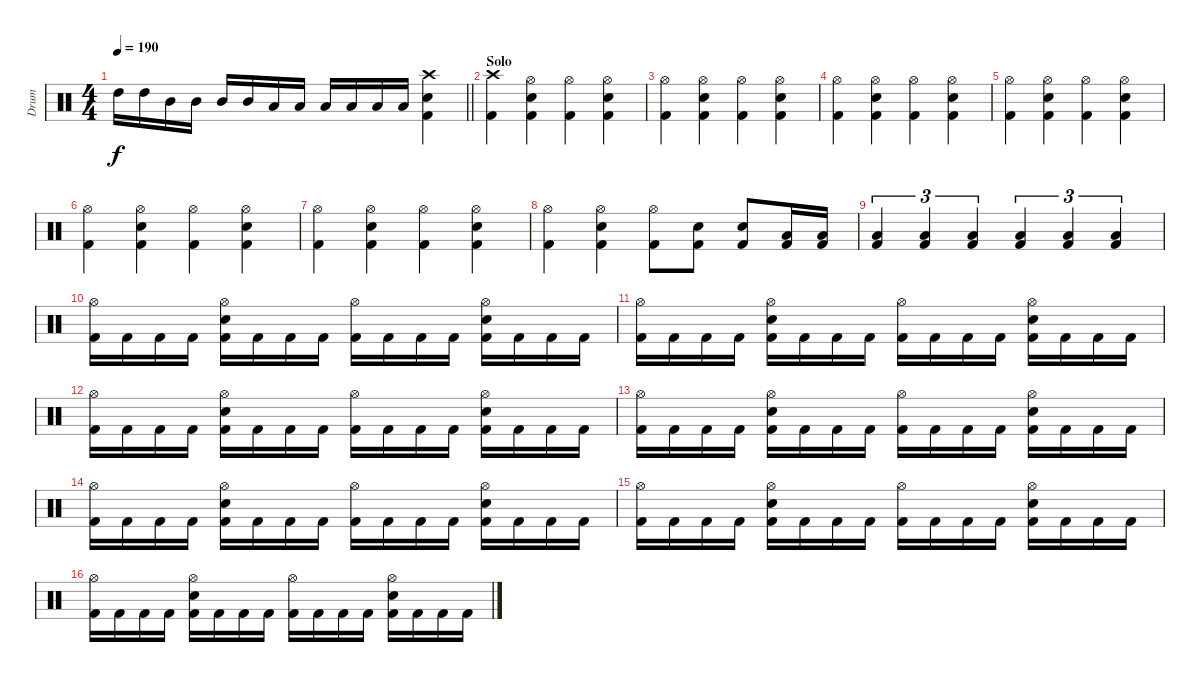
\track ("Drum" "Drum") {instrument percussion}
\staff {score}
\articulation defaults
\ts (4 4)
\tempo 190
\clef neutral
\barLineRight lightlight
\ks c "High Tom (hit)".16{dy f} "High Tom (hit)".16 "Mid Tom (hit)".16 "Mid Tom (hit)".16 "Mid Tom (hit)".16 "Mid Tom (hit)".16 "Low Tom (hit)".16 "Low Tom (hit)".16 "Low Tom (hit)".16 "Low Tom (hit)".16 "Low Floor Tom (hit)".16 "Low Floor Tom (hit)".16
("Crash high (hit)" "Snare (hit) 2" "Kick (hit) 2").4 |
\section ("" "Solo")
("Crash high (hit)" "Kick (hit) 2").4 ("Hi-Hat (open)" "Snare (hit) 2" "Kick (hit) 2").4 ("Hi-Hat (open)" "Kick (hit) 2").4 ("Hi-Hat (open)" "Snare (hit) 2" "Kick (hit) 2").4 |
("Hi-Hat (open)" "Kick (hit) 2").4 ("Hi-Hat (open)" "Snare (hit) 2" "Kick (hit) 2").4 ("Hi-Hat (open)" "Kick (hit) 2").4 ("Hi-Hat (open)" "Snare (hit) 2" "Kick (hit) 2").4 |
("Hi-Hat (open)" "Kick (hit) 2").4 ("Hi-Hat (open)" "Snare (hit) 2" "Kick (hit) 2").4 ("Hi-Hat (open)" "Kick (hit) 2").4 ("Hi-Hat (open)" "Snare (hit) 2" "Kick (hit) 2").4 |
("Hi-Hat (open)" "Kick (hit) 2").4 ("Hi-Hat (open)" "Snare (hit) 2" "Kick (hit) 2").4 ("Hi-Hat (open)" "Kick (hit) 2").4 ("Hi-Hat (open)" "Snare (hit) 2" "Kick (hit) 2").4 |
("Hi-Hat (open)" "Kick (hit) 2").4 ("Hi-Hat (open)" "Snare (hit) 2" "Kick (hit) 2").4 ("Hi-Hat (open)" "Kick (hit) 2").4 ("Hi-Hat (open)" "Snare (hit) 2" "Kick (hit) 2").4 |
("Hi-Hat (open)" "Kick (hit) 2").4 ("Hi-Hat (open)" "Snare (hit) 2" "Kick (hit) 2").4 ("Hi-Hat (open)" "Kick (hit) 2").4 ("Hi-Hat (open)" "Snare (hit) 2" "Kick (hit) 2").4 |
("Hi-Hat (open)" "Kick (hit) 2").4 ("Hi-Hat (open)" "Snare (hit) 2" "Kick (hit) 2").4 ("Hi-Hat (open)" "Kick (hit) 2").8 ("Snare (hit) 2" "Kick (hit) 2").8 ("Snare (hit) 2" "Kick (hit) 2").8 ("Low Tom (hit)" "Kick (hit) 2").16 ("Low Tom (hit)" "Kick (hit) 2").16 |
("Low Tom (hit)" "Kick (hit) 2").4{tu (3 2)} ("Low Tom (hit)" "Kick (hit) 2").4{tu (3 2)} ("Low Tom (hit)" "Kick (hit) 2").4{tu (3 2)} ("Low Tom (hit)" "Kick (hit) 2").4{tu (3 2)} ("Low Tom (hit)" "Kick (hit) 2").4{tu (3 2)} ("Low Tom (hit)" "Kick (hit) 2").4{tu (3 2)} |
("Hi-Hat (open)" "Kick (hit) 2").16 "Kick (hit) 2".16 "Kick (hit) 2".16 "Kick (hit) 2".16 ("Hi-Hat (open)" "Snare (hit) 2" "Kick (hit) 2").16 "Kick (hit) 2".16 "Kick (hit) 2".16 "Kick (hit) 2".16 ("Hi-Hat (open)" "Kick (hit) 2").16 "Kick (hit) 2".16 "Kick (hit) 2".16 "Kick (hit) 2".16 ("Hi-Hat (open)" "Snare (hit) 2" "Kick (hit) 2").16 "Kick (hit) 2".16 "Kick (hit) 2".16 "Kick (hit) 2".16 |
("Hi-Hat (open)" "Kick (hit) 2").16 "Kick (hit) 2".16 "Kick (hit) 2".16 "Kick (hit) 2".16 ("Hi-Hat (open)" "Snare (hit) 2" "Kick (hit) 2").16 "Kick (hit) 2".16 "Kick (hit) 2".16 "Kick (hit) 2".16 ("Hi-Hat (open)" "Kick (hit) 2").16 "Kick (hit) 2".16 "Kick (hit) 2".16 "Kick (hit) 2".16 ("Hi-Hat (open)" "Snare (hit) 2" "Kick (hit) 2").16 "Kick (hit) 2".16 "Kick (hit) 2".16 "Kick (hit) 2".16 |
("Hi-Hat (open)" "Kick (hit) 2").16 "Kick (hit) 2".16 "Kick (hit) 2".16 "Kick (hit) 2".16 ("Hi-Hat (open)" "Snare (hit) 2" "Kick (hit) 2").16 "Kick (hit) 2".16 "Kick (hit) 2".16 "Kick (hit) 2".16 ("Hi-Hat (open)" "Kick (hit) 2").16 "Kick (hit) 2".16 "Kick (hit) 2".16 "Kick (hit) 2".16 ("Hi-Hat (open)" "Snare (hit) 2" "Kick (hit) 2").16 "Kick (hit) 2".16 "Kick (hit) 2".16 "Kick (hit) 2".16 |
("Hi-Hat (open)" "Kick (hit) 2").16 "Kick (hit) 2".16 "Kick (hit) 2".16 "Kick (hit) 2".16 ("Hi-Hat (open)" "Snare (hit) 2" "Kick (hit) 2").16 "Kick (hit) 2".16 "Kick (hit) 2".16 "Kick (hit) 2".16 ("Hi-Hat (open)" "Kick (hit) 2").16 "Kick (hit) 2".16 "Kick (hit) 2".16 "Kick (hit) 2".16 ("Hi-Hat (open)" "Snare (hit) 2" "Kick (hit) 2").16 "Kick (hit) 2".16 "Kick (hit) 2".16 "Kick (hit) 2".16 |
("Hi-Hat (open)" "Kick (hit) 2").16 "Kick (hit) 2".16 "Kick (hit) 2".16 "Kick (hit) 2".16 ("Hi-Hat (open)" "Snare (hit) 2" "Kick (hit) 2").16 "Kick (hit) 2".16 "Kick (hit) 2".16 "Kick (hit) 2".16 ("Hi-Hat (open)" "Kick (hit) 2").16 "Kick (hit) 2".16 "Kick (hit) 2".16 "Kick (hit) 2".16 ("Hi-Hat (open)" "Snare (hit) 2" "Kick (hit) 2").16 "Kick (hit) 2".16 "Kick (hit) 2".16 "Kick (hit) 2".16 |
("Hi-Hat (open)" "Kick (hit) 2").16 "Kick (hit) 2".16 "Kick (hit) 2".16 "Kick (hit) 2".16 ("Hi-Hat (open)" "Snare (hit) 2" "Kick (hit) 2").16 "Kick (hit) 2".16 "Kick (hit) 2".16 "Kick (hit) 2".16 ("Hi-Hat (open)" "Kick (hit) 2").16 "Kick (hit) 2".16 "Kick (hit) 2".16 "Kick (hit) 2".16 ("Hi-Hat (open)" "Snare (hit) 2" "Kick (hit) 2").16 "Kick (hit) 2".16 "Kick (hit) 2".16 "Kick (hit) 2".16 |
("Hi-Hat (open)" "Kick (hit) 2").16 "Kick (hit) 2".16 "Kick (hit) 2".16 "Kick (hit) 2".16 ("Hi-Hat (open)" "Snare (hit) 2" "Kick (hit) 2").16 "Kick (hit) 2".16 "Kick (hit) 2".16 "Kick (hit) 2".16 ("Hi-Hat (open)" "Kick (hit) 2").16 "Kick (hit) 2".16 "Kick (hit) 2".16 "Kick (hit) 2".16 ("Hi-Hat (open)" "Snare (hit) 2" "Kick (hit) 2").16 "Kick (hit) 2".16 "Kick (hit) 2".16 "Kick (hit) 2".16
